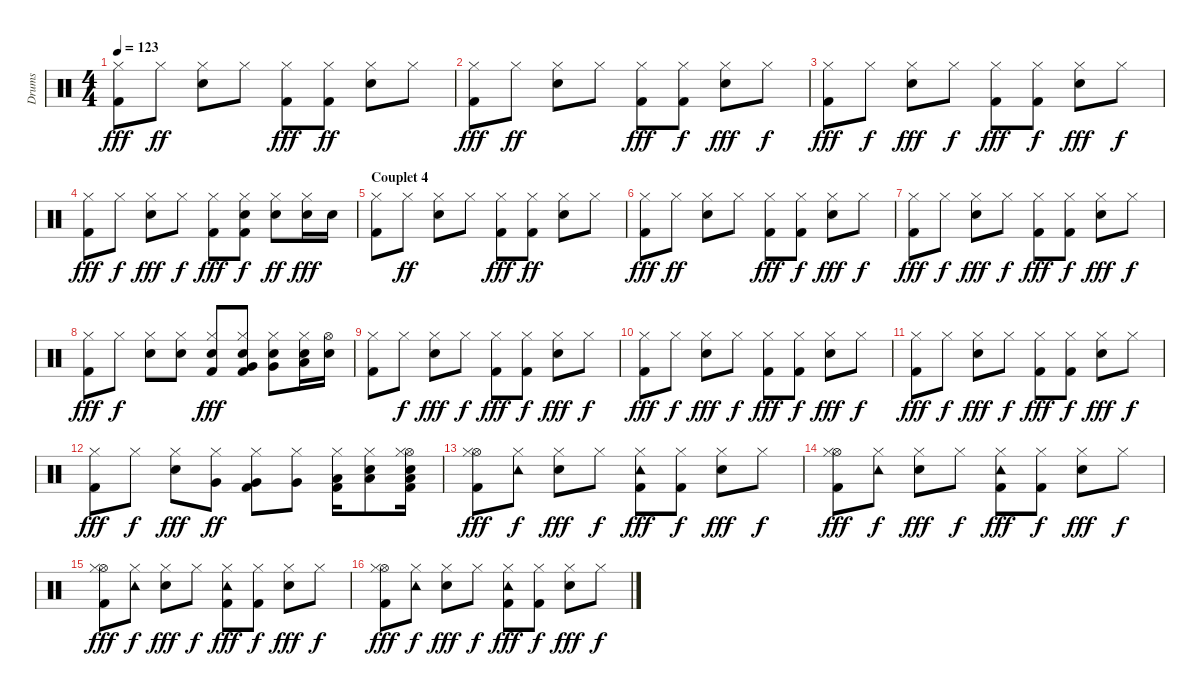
\track ("Drums" "Drums") {instrument percussion}
\staff {score}
\articulation defaults
\ts (4 4)
\tempo 123
\clef neutral
\ks c
("Kick (hit) 2" "Hi-Hat (closed)").8{dy fff} "Hi-Hat (closed)".8{dy ff} ("Snare (hit) 2" "Hi-Hat (closed)").8 "Hi-Hat (closed)".8 ("Kick (hit) 2" "Hi-Hat (closed)").8{dy fff} ("Kick (hit) 2" "Hi-Hat (closed)").8{dy ff} ("Snare (hit) 2" "Hi-Hat (closed)").8 "Hi-Hat (closed)".8 |
("Kick (hit) 2" "Hi-Hat (closed)").8{dy fff} "Hi-Hat (closed)".8{dy ff} ("Snare (hit) 2" "Hi-Hat (closed)").8 "Hi-Hat (closed)".8 ("Kick (hit) 2" "Hi-Hat (closed)").8{dy fff} ("Kick (hit) 2" "Hi-Hat (closed)").8{dy f} ("Snare (hit) 2" "Hi-Hat (closed)").8{dy fff} "Hi-Hat (closed)".8{dy f} |
("Kick (hit) 2" "Hi-Hat (closed)").8{dy fff} "Hi-Hat (closed)".8{dy f} ("Snare (hit) 2" "Hi-Hat (closed)").8{dy fff} "Hi-Hat (closed)".8{dy f} ("Kick (hit) 2" "Hi-Hat (closed)").8{dy fff} ("Kick (hit) 2" "Hi-Hat (closed)").8{dy f} ("Snare (hit) 2" "Hi-Hat (closed)").8{dy fff} "Hi-Hat (closed)".8{dy f} |
("Kick (hit) 2" "Hi-Hat (closed)").8{dy fff} "Hi-Hat (closed)".8{dy f} ("Snare (hit) 2" "Hi-Hat (closed)").8{dy fff} "Hi-Hat (closed)".8{dy f} ("Kick (hit) 2" "Hi-Hat (closed)").8{dy fff} ("Kick (hit) 2" "Snare (hit) 2" "Hi-Hat (closed)").8{dy f} ("Snare (hit) 2" "Hi-Hat (closed)").8{dy ff} ("Snare (hit) 2" "Hi-Hat (closed)").16{dy fff} "Snare (hit) 2".16 |
\section ("" "Couplet 4")
("Kick (hit) 2" "Hi-Hat (closed)").8 "Hi-Hat (closed)".8{dy ff} ("Snare (hit) 2" "Hi-Hat (closed)").8 "Hi-Hat (closed)".8 ("Kick (hit) 2" "Hi-Hat (closed)").8{dy fff} ("Kick (hit) 2" "Hi-Hat (closed)").8{dy ff} ("Snare (hit) 2" "Hi-Hat (closed)").8 "Hi-Hat (closed)".8 |
("Kick (hit) 2" "Hi-Hat (closed)").8{dy fff} "Hi-Hat (closed)".8{dy ff} ("Snare (hit) 2" "Hi-Hat (closed)").8 "Hi-Hat (closed)".8 ("Kick (hit) 2" "Hi-Hat (closed)").8{dy fff} ("Kick (hit) 2" "Hi-Hat (closed)").8{dy f} ("Snare (hit) 2" "Hi-Hat (closed)").8{dy fff} "Hi-Hat (closed)".8{dy f} |
("Kick (hit) 2" "Hi-Hat (closed)").8{dy fff} "Hi-Hat (closed)".8{dy f} ("Snare (hit) 2" "Hi-Hat (closed)").8{dy fff} "Hi-Hat (closed)".8{dy f} ("Kick (hit) 2" "Hi-Hat (closed)").8{dy fff} ("Kick (hit) 2" "Hi-Hat (closed)").8{dy f} ("Snare (hit) 2" "Hi-Hat (closed)").8{dy fff} "Hi-Hat (closed)".8{dy f} |
("Kick (hit) 2" "Hi-Hat (closed)").8{dy fff} "Hi-Hat (closed)".8{dy f} ("Snare (hit) 2" "Hi-Hat (closed)").8 ("Snare (hit) 2" "Hi-Hat (closed)").8 ("Kick (hit) 2" "Snare (hit) 2" "Hi-Hat (closed)").8{dy fff} ("Kick (hit) 2" "Snare (hit) 2" "Very Low Tom (hit)" "Hi-Hat (closed)").8 ("Snare (hit) 2" "Very Low Tom (hit)" "Hi-Hat (closed)").8 ("Snare (hit) 2" "Low Tom (hit)" "Hi-Hat (closed)").16 ("Hi-Hat (open)" "Snare (hit) 2").16 |
("Kick (hit) 2" "Hi-Hat (closed)").8 "Hi-Hat (closed)".8{dy f} ("Snare (hit) 2" "Hi-Hat (closed)").8{dy fff} "Hi-Hat (closed)".8{dy f} ("Kick (hit) 2" "Hi-Hat (closed)").8{dy fff} ("Kick (hit) 2" "Hi-Hat (closed)").8{dy f} ("Snare (hit) 2" "Hi-Hat (closed)").8{dy fff} "Hi-Hat (closed)".8{dy f} |
("Kick (hit) 2" "Hi-Hat (closed)").8{dy fff} "Hi-Hat (closed)".8{dy f} ("Snare (hit) 2" "Hi-Hat (closed)").8{dy fff} "Hi-Hat (closed)".8{dy f} ("Kick (hit) 2" "Hi-Hat (closed)").8{dy fff} ("Kick (hit) 2" "Hi-Hat (closed)").8{dy f} ("Snare (hit) 2" "Hi-Hat (closed)").8{dy fff} "Hi-Hat (closed)".8{dy f} |
("Kick (hit) 2" "Hi-Hat (closed)").8{dy fff} "Hi-Hat (closed)".8{dy f} ("Snare (hit) 2" "Hi-Hat (closed)").8{dy fff} "Hi-Hat (closed)".8{dy f} ("Kick (hit) 2" "Hi-Hat (closed)").8{dy fff} ("Kick (hit) 2" "Hi-Hat (closed)").8{dy f} ("Snare (hit) 2" "Hi-Hat (closed)").8{dy fff} "Hi-Hat (closed)".8{dy f} |
("Kick (hit) 2" "Hi-Hat (closed)").8{dy fff} "Hi-Hat (closed)".8{dy f} ("Snare (hit) 2" "Hi-Hat (closed)").8{dy fff} ("Very Low Tom (hit)" "Hi-Hat (closed)").8{dy ff} ("Kick (hit) 2" "Very Low Tom (hit)" "Hi-Hat (closed)").8 ("Very Low Tom (hit)" "Hi-Hat (closed)").8 ("Kick (hit) 2" "Low Tom (hit)" "Hi-Hat (closed)").16 ("Snare (hit) 2" "Low Floor Tom (hit)" "Hi-Hat (closed)").8 ("Kick (hit) 2" "Snare (hit) 2" "Low Floor Tom (hit)" "Hi-Hat (open)" "Hi-Hat (closed)").16 |
("Kick (hit) 2" "Hi-Hat (open)" "Hi-Hat (closed)").8{dy fff} ("Tambourine (hit)" "Hi-Hat (closed)").8{dy f} ("Snare (hit) 2" "Hi-Hat (closed)").8{dy fff} "Hi-Hat (closed)".8{dy f} ("Kick (hit) 2" "Tambourine (hit)" "Hi-Hat (closed)").8{dy fff} ("Kick (hit) 2" "Hi-Hat (closed)").8{dy f} ("Snare (hit) 2" "Hi-Hat (closed)").8{dy fff} "Hi-Hat (closed)".8{dy f} |
("Kick (hit) 2" "Hi-Hat (open)" "Hi-Hat (closed)").8{dy fff} ("Tambourine (hit)" "Hi-Hat (closed)").8{dy f} ("Snare (hit) 2" "Hi-Hat (closed)").8{dy fff} "Hi-Hat (closed)".8{dy f} ("Kick (hit) 2" "Tambourine (hit)" "Hi-Hat (closed)").8{dy fff} ("Kick (hit) 2" "Hi-Hat (closed)").8{dy f} ("Snare (hit) 2" "Hi-Hat (closed)").8{dy fff} "Hi-Hat (closed)".8{dy f} |
("Kick (hit) 2" "Hi-Hat (open)" "Hi-Hat (closed)").8{dy fff} ("Tambourine (hit)" "Hi-Hat (closed)").8{dy f} ("Snare (hit) 2" "Hi-Hat (closed)").8{dy fff} "Hi-Hat (closed)".8{dy f} ("Kick (hit) 2" "Tambourine (hit)" "Hi-Hat (closed)").8{dy fff} ("Kick (hit) 2" "Hi-Hat (closed)").8{dy f} ("Snare (hit) 2" "Hi-Hat (closed)").8{dy fff} "Hi-Hat (closed)".8{dy f} |
("Kick (hit) 2" "Hi-Hat (open)" "Hi-Hat (closed)").8{dy fff} ("Tambourine (hit)" "Hi-Hat (closed)").8{dy f} ("Snare (hit) 2" "Hi-Hat (closed)").8{dy fff} "Hi-Hat (closed)".8{dy f} ("Kick (hit) 2" "Tambourine (hit)" "Hi-Hat (closed)").8{dy fff} ("Kick (hit) 2" "Hi-Hat (closed)").8{dy f} ("Snare (hit) 2" "Hi-Hat (closed)").8{dy fff} "Hi-Hat (closed)".8{dy f}
